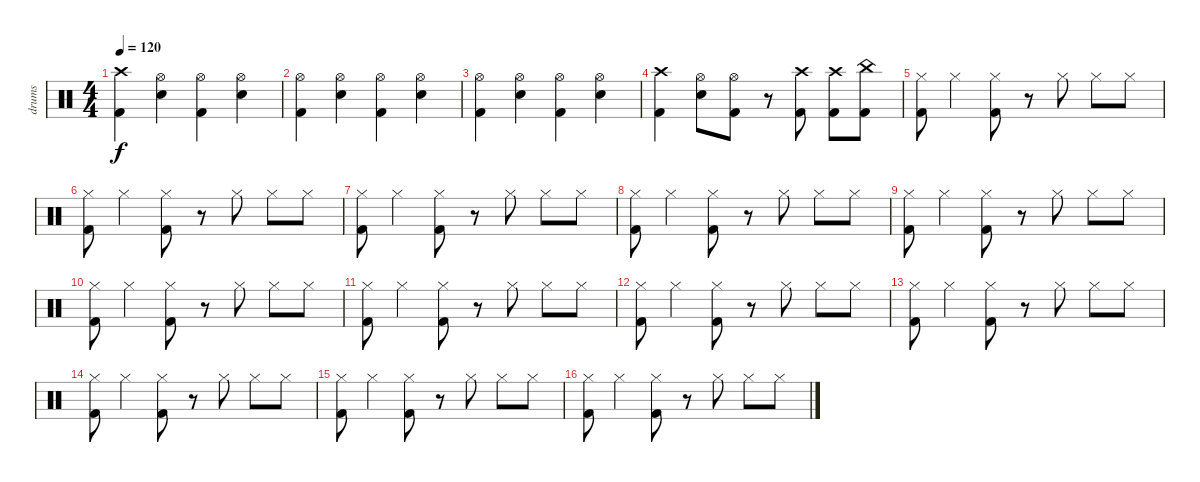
\track ("drums" "drums") {instrument percussion}
\staff {score}
\articulation defaults
\ts (4 4)
\tempo 120
\clef neutral
\ks c
("Kick (hit) 2" "Crash high (hit)").4{dy f} ("Snare (hit) 2" "Hi-Hat (open)").4 ("Kick (hit) 2" "Hi-Hat (open)").4 ("Snare (hit) 2" "Hi-Hat (open)").4 |
("Kick (hit) 2" "Hi-Hat (open)").4 ("Snare (hit) 2" "Hi-Hat (open)").4 ("Kick (hit) 2" "Hi-Hat (open)").4 ("Snare (hit) 2" "Hi-Hat (open)").4 |
("Kick (hit) 2" "Hi-Hat (open)").4 ("Snare (hit) 2" "Hi-Hat (open)").4 ("Kick (hit) 2" "Hi-Hat (open)").4 ("Snare (hit) 2" "Hi-Hat (open)").4 |
("Kick (hit) 2" "Crash high (hit)").4 ("Snare (hit) 2" "Hi-Hat (open)").8 ("Kick (hit) 2" "Hi-Hat (open)").8 r.8 ("Kick (hit) 2" "Crash high (hit)").8 ("Kick (hit) 2" "Crash high (hit)").8 ("Kick (hit) 2" "China (hit)").8 |
("Kick (hit) 2" "Hi-Hat (closed)").8 "Hi-Hat (closed)".4 ("Kick (hit) 2" "Hi-Hat (closed)").8 r.8 "Hi-Hat (closed)".8 "Hi-Hat (closed)".8 "Hi-Hat (closed)".8 |
("Kick (hit) 2" "Hi-Hat (closed)").8 "Hi-Hat (closed)".4 ("Kick (hit) 2" "Hi-Hat (closed)").8 r.8 "Hi-Hat (closed)".8 "Hi-Hat (closed)".8 "Hi-Hat (closed)".8 |
("Kick (hit) 2" "Hi-Hat (closed)").8 "Hi-Hat (closed)".4 ("Kick (hit) 2" "Hi-Hat (closed)").8 r.8 "Hi-Hat (closed)".8 "Hi-Hat (closed)".8 "Hi-Hat (closed)".8 |
("Kick (hit) 2" "Hi-Hat (closed)").8 "Hi-Hat (closed)".4 ("Kick (hit) 2" "Hi-Hat (closed)").8 r.8 "Hi-Hat (closed)".8 "Hi-Hat (closed)".8 "Hi-Hat (closed)".8 |
("Kick (hit) 2" "Hi-Hat (closed)").8 "Hi-Hat (closed)".4 ("Kick (hit) 2" "Hi-Hat (closed)").8 r.8 "Hi-Hat (closed)".8 "Hi-Hat (closed)".8 "Hi-Hat (closed)".8 |
("Kick (hit) 2" "Hi-Hat (closed)").8 "Hi-Hat (closed)".4 ("Kick (hit) 2" "Hi-Hat (closed)").8 r.8 "Hi-Hat (closed)".8 "Hi-Hat (closed)".8 "Hi-Hat (closed)".8 |
("Kick (hit) 2" "Hi-Hat (closed)").8 "Hi-Hat (closed)".4 ("Kick (hit) 2" "Hi-Hat (closed)").8 r.8 "Hi-Hat (closed)".8 "Hi-Hat (closed)".8 "Hi-Hat (closed)".8 |
("Kick (hit) 2" "Hi-Hat (closed)").8 "Hi-Hat (closed)".4 ("Kick (hit) 2" "Hi-Hat (closed)").8 r.8 "Hi-Hat (closed)".8 "Hi-Hat (closed)".8 "Hi-Hat (closed)".8 |
("Kick (hit) 2" "Hi-Hat (closed)").8 "Hi-Hat (closed)".4 ("Kick (hit) 2" "Hi-Hat (closed)").8 r.8 "Hi-Hat (closed)".8 "Hi-Hat (closed)".8 "Hi-Hat (closed)".8 |
("Kick (hit) 2" "Hi-Hat (closed)").8 "Hi-Hat (closed)".4 ("Kick (hit) 2" "Hi-Hat (closed)").8 r.8 "Hi-Hat (closed)".8 "Hi-Hat (closed)".8 "Hi-Hat (closed)".8 |
("Kick (hit) 2" "Hi-Hat (closed)").8 "Hi-Hat (closed)".4 ("Kick (hit) 2" "Hi-Hat (closed)").8 r.8 "Hi-Hat (closed)".8 "Hi-Hat (closed)".8 "Hi-Hat (closed)".8 |
("Kick (hit) 2" "Hi-Hat (closed)").8 "Hi-Hat (closed)".4 ("Kick (hit) 2" "Hi-Hat (closed)").8 r.8 "Hi-Hat (closed)".8 "Hi-Hat (closed)".8 "Hi-Hat (closed)".8
